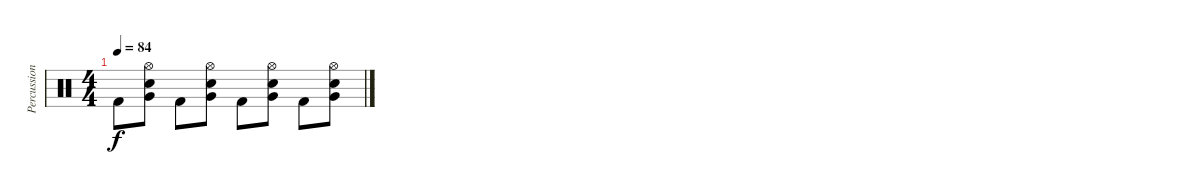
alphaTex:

\track ("Percussion" "Percussion") {instrument percussion}
\staff {score}
\articulation defaults
\ts (4 4)
\tempo 84
\clef neutral
\ks c "Kick (hit) 2".8{dy f}
("Hi-Hat (open)" "Very Low Tom (hit)" "Snare (hit) 2").8 "Kick (hit) 2".8 ("Hi-Hat (open)" "Very Low Tom (hit)" "Snare (hit) 2").8 "Kick (hit) 2".8 ("Hi-Hat (open)" "Very Low Tom (hit)" "Snare (hit) 2").8 "Kick (hit) 2".8 ("Hi-Hat (open)" "Very Low Tom (hit)" "Snare (hit) 2").8
